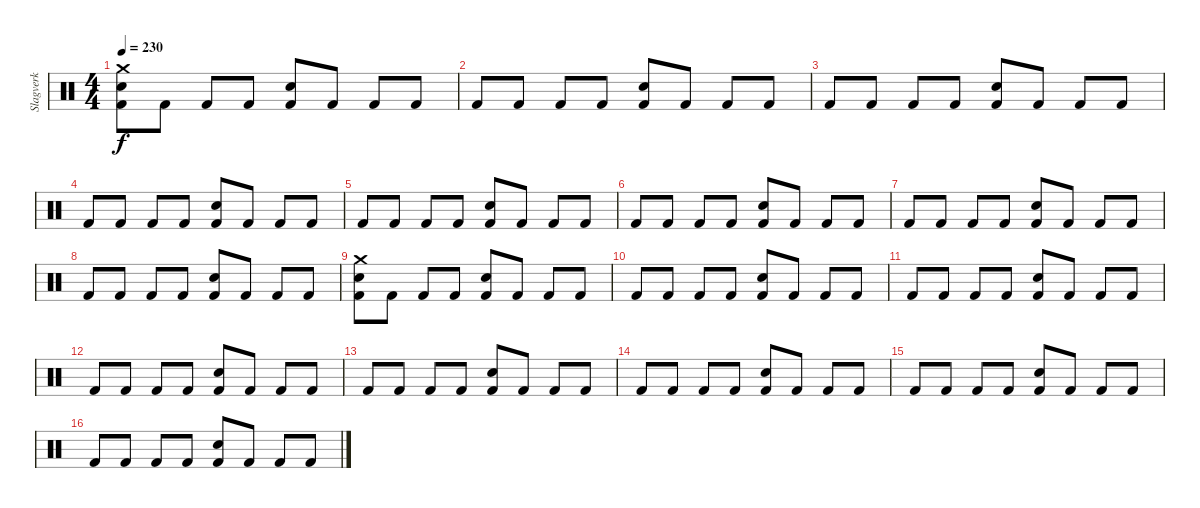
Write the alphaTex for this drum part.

\track ("Slagverk" "Slagverk") {instrument percussion}
\staff {score}
\articulation defaults
\ts (4 4)
\tempo 230
\clef neutral
\ks c
("Kick (hit) 2" "Snare (hit) 2" "Crash medium (hit)").8{dy f} "Kick (hit) 2".8 "Kick (hit) 2".8 "Kick (hit) 2".8 ("Kick (hit) 2" "Snare (hit) 2").8 "Kick (hit) 2".8 "Kick (hit) 2".8 "Kick (hit) 2".8 |
"Kick (hit) 2".8 "Kick (hit) 2".8 "Kick (hit) 2".8 "Kick (hit) 2".8 ("Kick (hit) 2" "Snare (hit) 2").8 "Kick (hit) 2".8 "Kick (hit) 2".8 "Kick (hit) 2".8 |
"Kick (hit) 2".8 "Kick (hit) 2".8 "Kick (hit) 2".8 "Kick (hit) 2".8 ("Kick (hit) 2" "Snare (hit) 2").8 "Kick (hit) 2".8 "Kick (hit) 2".8 "Kick (hit) 2".8 |
"Kick (hit) 2".8 "Kick (hit) 2".8 "Kick (hit) 2".8 "Kick (hit) 2".8 ("Kick (hit) 2" "Snare (hit) 2").8 "Kick (hit) 2".8 "Kick (hit) 2".8 "Kick (hit) 2".8 |
"Kick (hit) 2".8 "Kick (hit) 2".8 "Kick (hit) 2".8 "Kick (hit) 2".8 ("Kick (hit) 2" "Snare (hit) 2").8 "Kick (hit) 2".8 "Kick (hit) 2".8 "Kick (hit) 2".8 |
"Kick (hit) 2".8 "Kick (hit) 2".8 "Kick (hit) 2".8 "Kick (hit) 2".8 ("Kick (hit) 2" "Snare (hit) 2").8 "Kick (hit) 2".8 "Kick (hit) 2".8 "Kick (hit) 2".8 |
"Kick (hit) 2".8 "Kick (hit) 2".8 "Kick (hit) 2".8 "Kick (hit) 2".8 ("Kick (hit) 2" "Snare (hit) 2").8 "Kick (hit) 2".8 "Kick (hit) 2".8 "Kick (hit) 2".8 |
"Kick (hit) 2".8 "Kick (hit) 2".8 "Kick (hit) 2".8 "Kick (hit) 2".8 ("Kick (hit) 2" "Snare (hit) 2").8 "Kick (hit) 2".8 "Kick (hit) 2".8 "Kick (hit) 2".8 |
("Kick (hit) 2" "Snare (hit) 2" "Crash medium (hit)").8 "Kick (hit) 2".8 "Kick (hit) 2".8 "Kick (hit) 2".8 ("Kick (hit) 2" "Snare (hit) 2").8 "Kick (hit) 2".8 "Kick (hit) 2".8 "Kick (hit) 2".8 |
"Kick (hit) 2".8 "Kick (hit) 2".8 "Kick (hit) 2".8 "Kick (hit) 2".8 ("Kick (hit) 2" "Snare (hit) 2").8 "Kick (hit) 2".8 "Kick (hit) 2".8 "Kick (hit) 2".8 |
"Kick (hit) 2".8 "Kick (hit) 2".8 "Kick (hit) 2".8 "Kick (hit) 2".8 ("Kick (hit) 2" "Snare (hit) 2").8 "Kick (hit) 2".8 "Kick (hit) 2".8 "Kick (hit) 2".8 |
"Kick (hit) 2".8 "Kick (hit) 2".8 "Kick (hit) 2".8 "Kick (hit) 2".8 ("Kick (hit) 2" "Snare (hit) 2").8 "Kick (hit) 2".8 "Kick (hit) 2".8 "Kick (hit) 2".8 |
"Kick (hit) 2".8 "Kick (hit) 2".8 "Kick (hit) 2".8 "Kick (hit) 2".8 ("Kick (hit) 2" "Snare (hit) 2").8 "Kick (hit) 2".8 "Kick (hit) 2".8 "Kick (hit) 2".8 |
"Kick (hit) 2".8 "Kick (hit) 2".8 "Kick (hit) 2".8 "Kick (hit) 2".8 ("Kick (hit) 2" "Snare (hit) 2").8 "Kick (hit) 2".8 "Kick (hit) 2".8 "Kick (hit) 2".8 |
"Kick (hit) 2".8 "Kick (hit) 2".8 "Kick (hit) 2".8 "Kick (hit) 2".8 ("Kick (hit) 2" "Snare (hit) 2").8 "Kick (hit) 2".8 "Kick (hit) 2".8 "Kick (hit) 2".8 |
"Kick (hit) 2".8 "Kick (hit) 2".8 "Kick (hit) 2".8 "Kick (hit) 2".8 ("Kick (hit) 2" "Snare (hit) 2").8 "Kick (hit) 2".8 "Kick (hit) 2".8 "Kick (hit) 2".8
